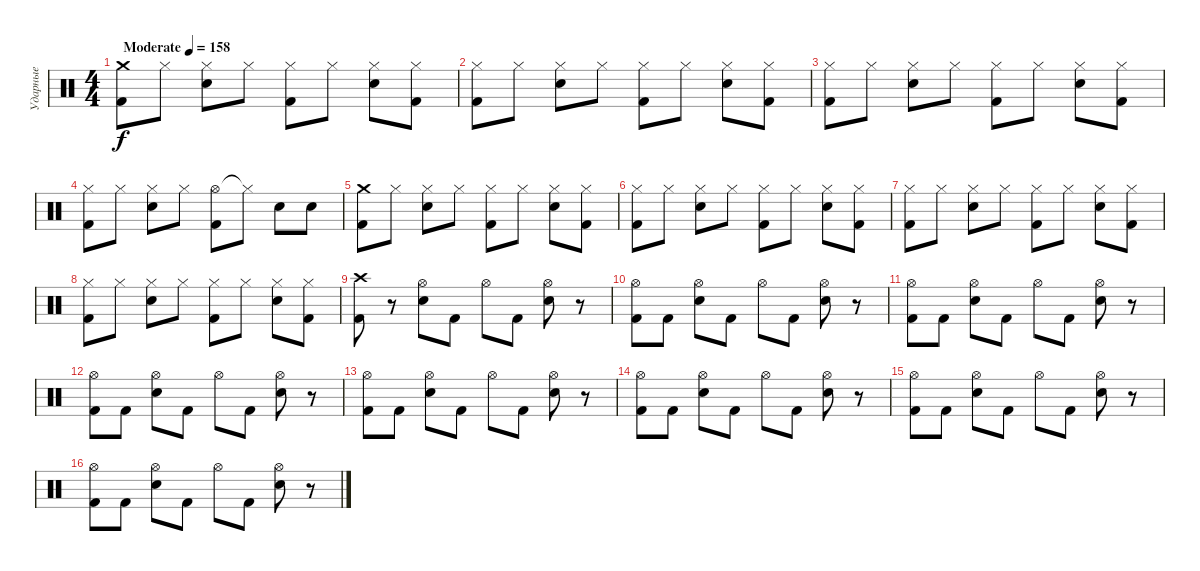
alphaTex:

\track ("Ударные" "Ударные") {instrument percussion}
\staff {score}
\articulation defaults
\ts (4 4)
\tempo (158 "Moderate")
\clef neutral
\ks c
("Crash medium (hit)" "Kick (hit) 2").8{dy f} "Hi-Hat (closed)".8 ("Hi-Hat (closed)" "Electric Snare (hit)").8 "Hi-Hat (closed)".8 ("Hi-Hat (closed)" "Kick (hit) 2").8 "Hi-Hat (closed)".8 ("Hi-Hat (closed)" "Electric Snare (hit)").8 ("Hi-Hat (closed)" "Kick (hit) 2").8 |
("Hi-Hat (closed)" "Kick (hit) 2").8 "Hi-Hat (closed)".8 ("Hi-Hat (closed)" "Electric Snare (hit)").8 "Hi-Hat (closed)".8 ("Hi-Hat (closed)" "Kick (hit) 2").8 "Hi-Hat (closed)".8 ("Hi-Hat (closed)" "Electric Snare (hit)").8 ("Hi-Hat (closed)" "Kick (hit) 2").8 |
("Hi-Hat (closed)" "Kick (hit) 2").8 "Hi-Hat (closed)".8 ("Hi-Hat (closed)" "Electric Snare (hit)").8 "Hi-Hat (closed)".8 ("Hi-Hat (closed)" "Kick (hit) 2").8 "Hi-Hat (closed)".8 ("Hi-Hat (closed)" "Electric Snare (hit)").8 ("Hi-Hat (closed)" "Kick (hit) 2").8 |
("Hi-Hat (closed)" "Kick (hit) 2").8 "Hi-Hat (closed)".8 ("Hi-Hat (closed)" "Electric Snare (hit)").8 "Hi-Hat (closed)".8 ("Hi-Hat (open)" "Kick (hit) 2").8 "Hi-Hat (closed)"{t}.8 "Electric Snare (hit)".8 "Electric Snare (hit)".8 |
("Crash medium (hit)" "Kick (hit) 2").8 "Hi-Hat (closed)".8 ("Hi-Hat (closed)" "Electric Snare (hit)").8 "Hi-Hat (closed)".8 ("Hi-Hat (closed)" "Kick (hit) 2").8 "Hi-Hat (closed)".8 ("Hi-Hat (closed)" "Electric Snare (hit)").8 ("Hi-Hat (closed)" "Kick (hit) 2").8 |
("Hi-Hat (closed)" "Kick (hit) 2").8 "Hi-Hat (closed)".8 ("Hi-Hat (closed)" "Electric Snare (hit)").8 "Hi-Hat (closed)".8 ("Hi-Hat (closed)" "Kick (hit) 2").8 "Hi-Hat (closed)".8 ("Hi-Hat (closed)" "Electric Snare (hit)").8 ("Hi-Hat (closed)" "Kick (hit) 2").8 |
("Hi-Hat (closed)" "Kick (hit) 2").8 "Hi-Hat (closed)".8 ("Hi-Hat (closed)" "Electric Snare (hit)").8 "Hi-Hat (closed)".8 ("Hi-Hat (closed)" "Kick (hit) 2").8 "Hi-Hat (closed)".8 ("Hi-Hat (closed)" "Electric Snare (hit)").8 ("Hi-Hat (closed)" "Kick (hit) 2").8 |
("Hi-Hat (closed)" "Kick (hit) 2").8 "Hi-Hat (closed)".8 ("Hi-Hat (closed)" "Electric Snare (hit)").8 "Hi-Hat (closed)".8 ("Hi-Hat (closed)" "Kick (hit) 2").8 "Hi-Hat (closed)".8 ("Hi-Hat (closed)" "Electric Snare (hit)").8 ("Hi-Hat (closed)" "Kick (hit) 2").8 |
("Crash high (hit)" "Kick (hit) 2").8 r.8 ("Hi-Hat (open)" "Electric Snare (hit)").8 "Kick (hit) 2".8 "Hi-Hat (open)".8 "Kick (hit) 2".8 ("Hi-Hat (open)" "Electric Snare (hit)").8 r.8 |
("Hi-Hat (open)" "Kick (hit) 2").8 "Kick (hit) 2".8 ("Hi-Hat (open)" "Electric Snare (hit)").8 "Kick (hit) 2".8 "Hi-Hat (open)".8 "Kick (hit) 2".8 ("Hi-Hat (open)" "Electric Snare (hit)").8 r.8 |
("Hi-Hat (open)" "Kick (hit) 2").8 "Kick (hit) 2".8 ("Hi-Hat (open)" "Electric Snare (hit)").8 "Kick (hit) 2".8 "Hi-Hat (open)".8 "Kick (hit) 2".8 ("Hi-Hat (open)" "Electric Snare (hit)").8 r.8 |
("Hi-Hat (open)" "Kick (hit) 2").8 "Kick (hit) 2".8 ("Hi-Hat (open)" "Electric Snare (hit)").8 "Kick (hit) 2".8 "Hi-Hat (open)".8 "Kick (hit) 2".8 ("Hi-Hat (open)" "Electric Snare (hit)").8 r.8 |
("Hi-Hat (open)" "Kick (hit) 2").8 "Kick (hit) 2".8 ("Hi-Hat (open)" "Electric Snare (hit)").8 "Kick (hit) 2".8 "Hi-Hat (open)".8 "Kick (hit) 2".8 ("Hi-Hat (open)" "Electric Snare (hit)").8 r.8 |
("Hi-Hat (open)" "Kick (hit) 2").8 "Kick (hit) 2".8 ("Hi-Hat (open)" "Electric Snare (hit)").8 "Kick (hit) 2".8 "Hi-Hat (open)".8 "Kick (hit) 2".8 ("Hi-Hat (open)" "Electric Snare (hit)").8 r.8 |
("Hi-Hat (open)" "Kick (hit) 2").8 "Kick (hit) 2".8 ("Hi-Hat (open)" "Electric Snare (hit)").8 "Kick (hit) 2".8 "Hi-Hat (open)".8 "Kick (hit) 2".8 ("Hi-Hat (open)" "Electric Snare (hit)").8 r.8 |
("Hi-Hat (open)" "Kick (hit) 2").8 "Kick (hit) 2".8 ("Hi-Hat (open)" "Electric Snare (hit)").8 "Kick (hit) 2".8 "Hi-Hat (open)".8 "Kick (hit) 2".8 ("Hi-Hat (open)" "Electric Snare (hit)").8 r.8
